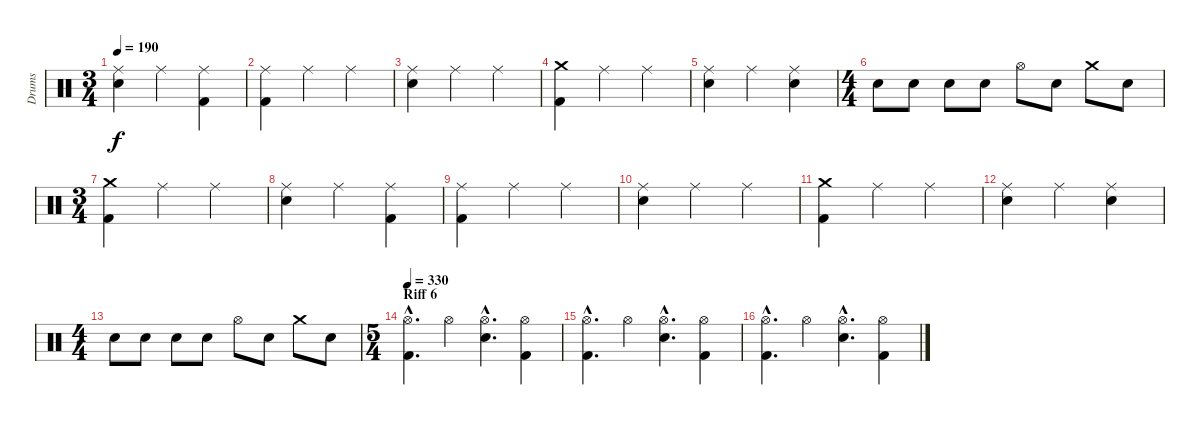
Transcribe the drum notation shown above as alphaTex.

\track ("Drums" "Drums") {instrument percussion}
\staff {score}
\articulation defaults
\ts (3 4)
\tempo 190
\clef neutral
\ks c
("Ride (middle)" "Electric Snare (hit)").4{dy f} "Ride (middle)".4 ("Ride (middle)" "Kick (hit) 2").4 |
("Ride (middle)" "Kick (hit) 2").4 "Ride (middle)".4 "Ride (middle)".4 |
("Ride (middle)" "Electric Snare (hit)").4 "Ride (middle)".4 "Ride (middle)".4 |
("Crash medium (hit)" "Kick (hit) 2").4 "Ride (middle)".4 "Ride (middle)".4 |
("Ride (middle)" "Electric Snare (hit)").4 "Ride (middle)".4 ("Ride (middle)" "Electric Snare (hit)").4 |
\ts (4 4)
"Electric Snare (hit)".8 "Electric Snare (hit)".8 "Electric Snare (hit)".8 "Electric Snare (hit)".8 "Hi-Hat (open)".8 "Electric Snare (hit)".8 "Crash medium (hit)".8 "Electric Snare (hit)".8 |
\ts (3 4)
("Crash medium (hit)" "Kick (hit) 2").4 "Ride (middle)".4 "Ride (middle)".4 |
("Ride (middle)" "Electric Snare (hit)").4 "Ride (middle)".4 ("Ride (middle)" "Kick (hit) 2").4 |
("Ride (middle)" "Kick (hit) 2").4 "Ride (middle)".4 "Ride (middle)".4 |
("Ride (middle)" "Electric Snare (hit)").4 "Ride (middle)".4 "Ride (middle)".4 |
("Crash medium (hit)" "Kick (hit) 2").4 "Ride (middle)".4 "Ride (middle)".4 |
("Ride (middle)" "Electric Snare (hit)").4 "Ride (middle)".4 ("Ride (middle)" "Electric Snare (hit)").4 |
\ts (4 4)
"Electric Snare (hit)".8 "Electric Snare (hit)".8 "Electric Snare (hit)".8 "Electric Snare (hit)".8 "Hi-Hat (open)".8 "Electric Snare (hit)".8 "Crash medium (hit)".8 "Electric Snare (hit)".8 |
\ts (5 4)
\section ("" "Riff 6")
\tempo 400
\tempo 330
("Hi-Hat (open)"{hac} "Kick (hit) 2"{hac}).4{d} "Hi-Hat (open)".4 ("Hi-Hat (open)"{hac} "Electric Snare (hit)"{hac}).4{d} ("Hi-Hat (open)" "Kick (hit) 2").4 |
("Hi-Hat (open)"{hac} "Kick (hit) 2"{hac}).4{d} "Hi-Hat (open)".4 ("Hi-Hat (open)"{hac} "Electric Snare (hit)"{hac}).4{d} ("Hi-Hat (open)" "Kick (hit) 2").4 |
("Hi-Hat (open)"{hac} "Kick (hit) 2"{hac}).4{d} "Hi-Hat (open)".4 ("Hi-Hat (open)"{hac} "Electric Snare (hit)"{hac}).4{d} ("Hi-Hat (open)" "Kick (hit) 2").4
